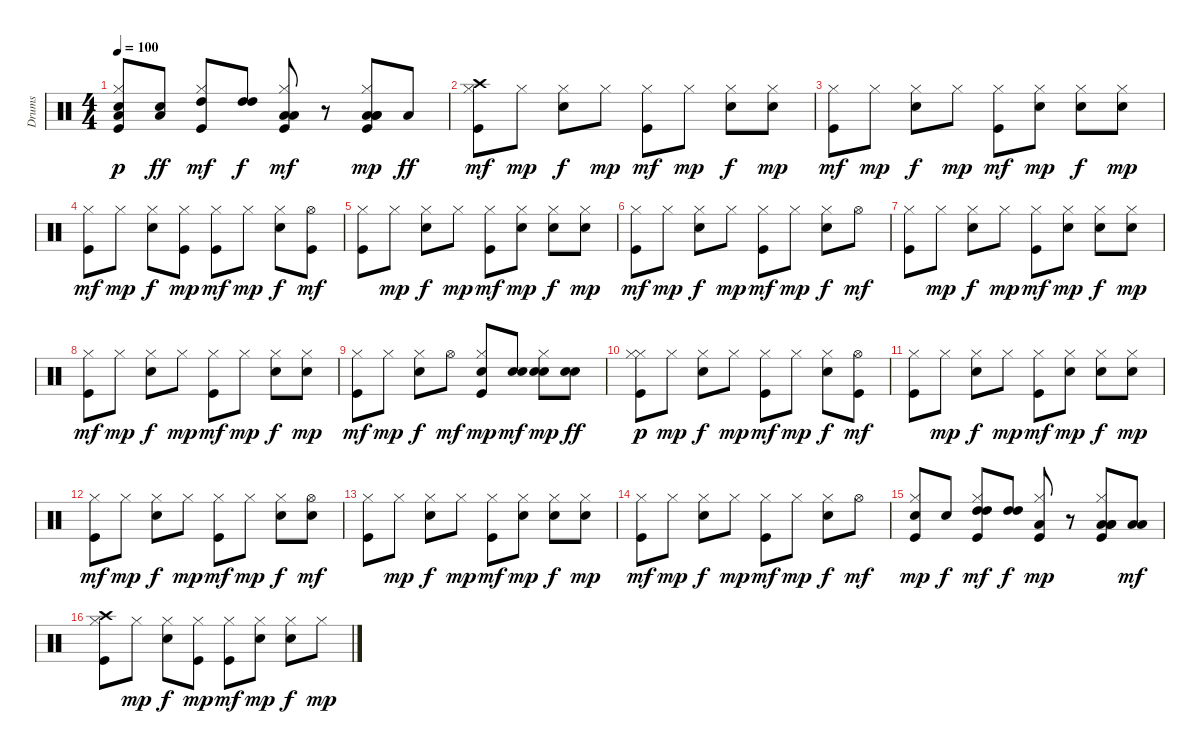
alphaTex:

\track ("Drums" "Drums") {instrument percussion}
\staff {score}
\articulation defaults
\ts (4 4)
\tempo 100
\clef neutral
\ks c
("Kick (hit)" "Hi-Hat (closed)" "Low Floor Tom (hit)" "Snare (hit) 2").8{dy p} ("Snare (hit) 2" "Low Floor Tom (hit)").8{dy ff} ("Kick (hit)" "Hi-Hat (closed)" "High Tom (hit)").8{dy mf} ("High Tom (hit)" "High Tom (hit)").8{dy f} ("Kick (hit)" "Hi-Hat (closed)" "Low Tom (hit)" "Low Tom (hit)").8{dy mf} r.8 ("Low Tom (hit)" "Kick (hit)" "Hi-Hat (closed)" "Low Floor Tom (hit)" "Low Floor Tom (hit)").8{dy mp} "Low Floor Tom (hit)".8{dy ff} |
("Kick (hit)" "Hi-Hat (closed)" "Crash high (hit)").8{dy mf} "Hi-Hat (closed)".8{dy mp} ("Snare (hit) 2" "Hi-Hat (closed)").8{dy f} "Hi-Hat (closed)".8{dy mp} ("Kick (hit)" "Hi-Hat (closed)").8{dy mf} "Hi-Hat (closed)".8{dy mp} ("Snare (hit) 2" "Hi-Hat (closed)").8{dy f} ("Snare (hit) 2" "Hi-Hat (closed)").8{dy mp} |
("Kick (hit)" "Hi-Hat (closed)").8{dy mf} "Hi-Hat (closed)".8{dy mp} ("Snare (hit) 2" "Hi-Hat (closed)").8{dy f} "Hi-Hat (closed)".8{dy mp} ("Kick (hit)" "Hi-Hat (closed)").8{dy mf} ("Snare (hit) 2" "Hi-Hat (closed)").8{dy mp} ("Snare (hit) 2" "Hi-Hat (closed)").8{dy f} ("Snare (hit) 2" "Hi-Hat (closed)").8{dy mp} |
("Kick (hit)" "Hi-Hat (closed)").8{dy mf} "Hi-Hat (closed)".8{dy mp} ("Snare (hit) 2" "Hi-Hat (closed)").8{dy f} ("Kick (hit)" "Hi-Hat (closed)").8{dy mp} ("Kick (hit)" "Hi-Hat (closed)").8{dy mf} "Hi-Hat (closed)".8{dy mp} ("Snare (hit) 2" "Hi-Hat (closed)").8{dy f} ("Kick (hit)" "Hi-Hat (open)").8{dy mf} |
("Kick (hit)" "Hi-Hat (closed)").8 "Hi-Hat (closed)".8{dy mp} ("Snare (hit) 2" "Hi-Hat (closed)").8{dy f} "Hi-Hat (closed)".8{dy mp} ("Kick (hit)" "Hi-Hat (closed)").8{dy mf} ("Snare (hit) 2" "Hi-Hat (closed)").8{dy mp} ("Snare (hit) 2" "Hi-Hat (closed)").8{dy f} ("Snare (hit) 2" "Hi-Hat (closed)").8{dy mp} |
("Kick (hit)" "Hi-Hat (closed)").8{dy mf} "Hi-Hat (closed)".8{dy mp} ("Snare (hit) 2" "Hi-Hat (closed)").8{dy f} "Hi-Hat (closed)".8{dy mp} ("Kick (hit)" "Hi-Hat (closed)").8{dy mf} "Hi-Hat (closed)".8{dy mp} ("Snare (hit) 2" "Hi-Hat (closed)").8{dy f} "Hi-Hat (open)".8{dy mf} |
("Kick (hit)" "Hi-Hat (closed)").8 "Hi-Hat (closed)".8{dy mp} ("Snare (hit) 2" "Hi-Hat (closed)").8{dy f} "Hi-Hat (closed)".8{dy mp} ("Kick (hit)" "Hi-Hat (closed)").8{dy mf} ("Snare (hit) 2" "Hi-Hat (closed)").8{dy mp} ("Snare (hit) 2" "Hi-Hat (closed)").8{dy f} ("Snare (hit) 2" "Hi-Hat (closed)").8{dy mp} |
("Kick (hit)" "Hi-Hat (closed)").8{dy mf} "Hi-Hat (closed)".8{dy mp} ("Snare (hit) 2" "Hi-Hat (closed)").8{dy f} "Hi-Hat (closed)".8{dy mp} ("Kick (hit)" "Hi-Hat (closed)").8{dy mf} "Hi-Hat (closed)".8{dy mp} ("Snare (hit) 2" "Hi-Hat (closed)").8{dy f} ("Snare (hit) 2" "Hi-Hat (closed)").8{dy mp} |
("Kick (hit)" "Hi-Hat (closed)").8{dy mf} "Hi-Hat (closed)".8{dy mp} ("Snare (hit) 2" "Hi-Hat (closed)").8{dy f} "Hi-Hat (open)".8{dy mf} ("Kick (hit)" "Snare (hit) 2" "Hi-Hat (closed)").8{dy mp} ("Snare (hit) 2" "Snare (hit) 2").8{dy mf} ("Snare (hit) 2" "Hi-Hat (closed)" "Snare (hit) 2").8{dy mp} ("Snare (hit) 2" "Snare (hit) 2").8{dy ff} |
("Kick (hit)" "Hi-Hat (closed)" "Hi-Hat (closed)").8{dy p} "Hi-Hat (closed)".8{dy mp} ("Snare (hit) 2" "Hi-Hat (closed)").8{dy f} "Hi-Hat (closed)".8{dy mp} ("Kick (hit)" "Hi-Hat (closed)").8{dy mf} "Hi-Hat (closed)".8{dy mp} ("Snare (hit) 2" "Hi-Hat (closed)").8{dy f} ("Kick (hit)" "Hi-Hat (open)").8{dy mf} |
("Kick (hit)" "Hi-Hat (closed)").8 "Hi-Hat (closed)".8{dy mp} ("Snare (hit) 2" "Hi-Hat (closed)").8{dy f} "Hi-Hat (closed)".8{dy mp} ("Kick (hit)" "Hi-Hat (closed)").8{dy mf} ("Snare (hit) 2" "Hi-Hat (closed)").8{dy mp} ("Snare (hit) 2" "Hi-Hat (closed)").8{dy f} ("Snare (hit) 2" "Hi-Hat (closed)").8{dy mp} |
("Kick (hit)" "Hi-Hat (closed)").8{dy mf} "Hi-Hat (closed)".8{dy mp} ("Snare (hit) 2" "Hi-Hat (closed)").8{dy f} "Hi-Hat (closed)".8{dy mp} ("Kick (hit)" "Hi-Hat (closed)").8{dy mf} "Hi-Hat (closed)".8{dy mp} ("Snare (hit) 2" "Hi-Hat (closed)").8{dy f} ("Snare (hit) 2" "Hi-Hat (open)").8{dy mf} |
("Kick (hit)" "Hi-Hat (closed)").8 "Hi-Hat (closed)".8{dy mp} ("Snare (hit) 2" "Hi-Hat (closed)").8{dy f} "Hi-Hat (closed)".8{dy mp} ("Kick (hit)" "Hi-Hat (closed)").8{dy mf} ("Snare (hit) 2" "Hi-Hat (closed)").8{dy mp} ("Snare (hit) 2" "Hi-Hat (closed)").8{dy f} ("Snare (hit) 2" "Hi-Hat (closed)").8{dy mp} |
("Kick (hit)" "Hi-Hat (closed)").8{dy mf} "Hi-Hat (closed)".8{dy mp} ("Snare (hit) 2" "Hi-Hat (closed)").8{dy f} "Hi-Hat (closed)".8{dy mp} ("Kick (hit)" "Hi-Hat (closed)").8{dy mf} "Hi-Hat (closed)".8{dy mp} ("Snare (hit) 2" "Hi-Hat (closed)").8{dy f} "Hi-Hat (open)".8{dy mf} |
("Kick (hit)" "Snare (hit) 2" "Hi-Hat (closed)").8{dy mp} "Snare (hit) 2".8{dy f} ("Kick (hit)" "Hi-Hat (closed)" "High Tom (hit)" "High Tom (hit)").8{dy mf} ("High Tom (hit)" "High Tom (hit)").8{dy f} ("Kick (hit)" "Hi-Hat (closed)" "Low Tom (hit)").8{dy mp} r.8 ("Low Tom (hit)" "Kick (hit)" "Hi-Hat (closed)" "Low Floor Tom (hit)" "Low Floor Tom (hit)").8 ("Low Floor Tom (hit)" "Low Floor Tom (hit)").8{dy mf} |
("Kick (hit)" "Hi-Hat (closed)" "Crash high (hit)").8 "Hi-Hat (closed)".8{dy mp} ("Snare (hit) 2" "Hi-Hat (closed)").8{dy f} ("Kick (hit)" "Hi-Hat (closed)").8{dy mp} ("Kick (hit)" "Hi-Hat (closed)").8{dy mf} ("Snare (hit) 2" "Hi-Hat (closed)").8{dy mp} ("Snare (hit) 2" "Hi-Hat (closed)").8{dy f} "Hi-Hat (closed)".8{dy mp}
